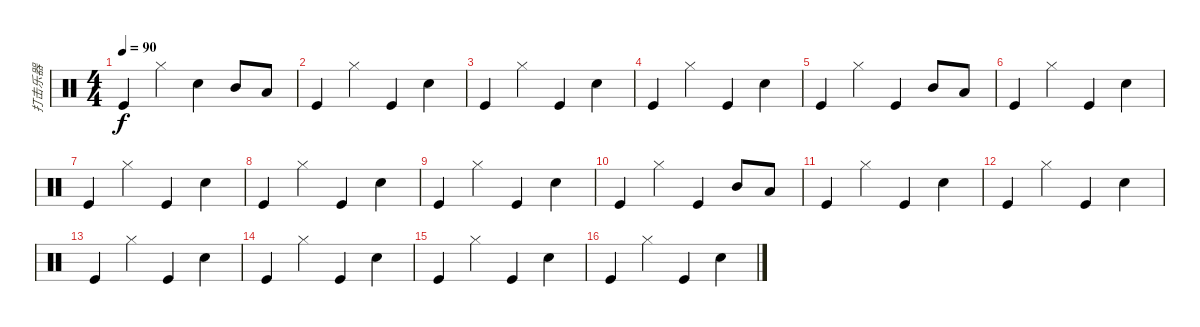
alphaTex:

\track ("打击乐器" "打击乐器") {instrument percussion}
\staff {score}
\articulation defaults
\ts (4 4)
\tempo 90
\clef neutral
\ks c "Kick (hit)".4{dy f} "Hi-Hat (closed)".4 "Electric Snare (hit)".4 "Mid Tom (hit)".8 "Low Tom (hit)".8
|
"Kick (hit)".4 "Hi-Hat (closed)".4 "Kick (hit)".4 "Electric Snare (hit)".4 |
"Kick (hit)".4 "Hi-Hat (closed)".4 "Kick (hit)".4 "Electric Snare (hit)".4 |
"Kick (hit)".4 "Hi-Hat (closed)".4 "Kick (hit)".4 "Electric Snare (hit)".4 |
"Kick (hit)".4 "Hi-Hat (closed)".4 "Kick (hit)".4 "Mid Tom (hit)".8 "Low Tom (hit)".8 |
"Kick (hit)".4 "Hi-Hat (closed)".4 "Kick (hit)".4 "Electric Snare (hit)".4 |
"Kick (hit)".4 "Hi-Hat (closed)".4 "Kick (hit)".4 "Electric Snare (hit)".4 |
"Kick (hit)".4 "Hi-Hat (closed)".4 "Kick (hit)".4 "Electric Snare (hit)".4 |
"Kick (hit)".4 "Hi-Hat (closed)".4 "Kick (hit)".4 "Electric Snare (hit)".4 |
"Kick (hit)".4 "Hi-Hat (closed)".4 "Kick (hit)".4 "Mid Tom (hit)".8 "Low Tom (hit)".8 |
"Kick (hit)".4 "Hi-Hat (closed)".4 "Kick (hit)".4 "Electric Snare (hit)".4 |
"Kick (hit)".4 "Hi-Hat (closed)".4 "Kick (hit)".4 "Electric Snare (hit)".4 |
"Kick (hit)".4 "Hi-Hat (closed)".4 "Kick (hit)".4 "Electric Snare (hit)".4 |
"Kick (hit)".4 "Hi-Hat (closed)".4 "Kick (hit)".4 "Electric Snare (hit)".4 |
"Kick (hit)".4 "Hi-Hat (closed)".4 "Kick (hit)".4 "Electric Snare (hit)".4 |
"Kick (hit)".4 "Hi-Hat (closed)".4 "Kick (hit)".4 "Electric Snare (hit)".4
